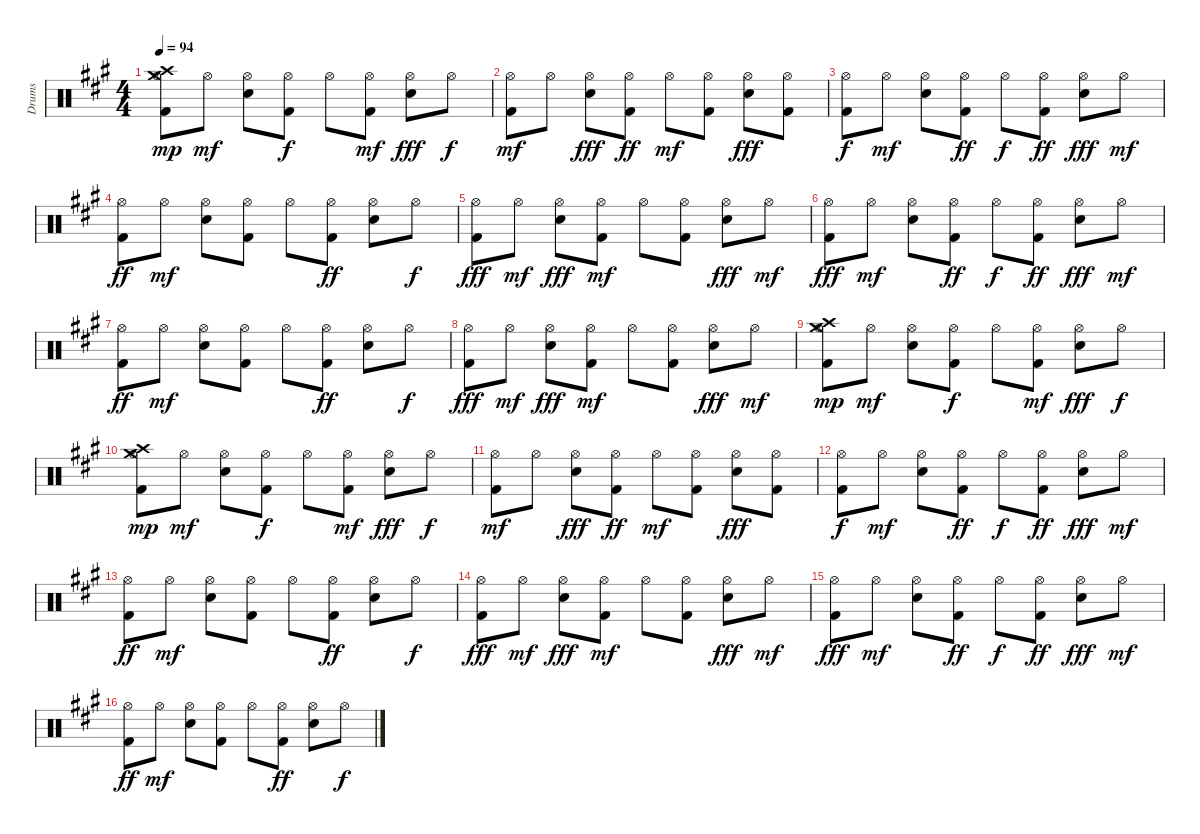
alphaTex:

\track ("Drums" "Drums") {instrument percussion}
\staff {score}
\articulation defaults
\ts (4 4)
\tempo 94
\clef neutral
\ks a
("Kick (hit) 2" "Hi-Hat (open)" "Crash high (hit)" "Crash medium (hit)").8{dy mp} "Hi-Hat (open)".8{dy mf} ("Electric Snare (hit)" "Hi-Hat (open)").8 ("Kick (hit) 2" "Hi-Hat (open)").8{dy f} "Hi-Hat (open)".8 ("Kick (hit) 2" "Hi-Hat (open)").8{dy mf} ("Electric Snare (hit)" "Hi-Hat (open)").8{dy fff} "Hi-Hat (open)".8{dy f} |
("Kick (hit) 2" "Hi-Hat (open)").8{dy mf} "Hi-Hat (open)".8 ("Electric Snare (hit)" "Hi-Hat (open)").8{dy fff} ("Kick (hit) 2" "Hi-Hat (open)").8{dy ff} "Hi-Hat (open)".8{dy mf} ("Kick (hit) 2" "Hi-Hat (open)").8 ("Electric Snare (hit)" "Hi-Hat (open)").8{dy fff} ("Kick (hit) 2" "Hi-Hat (open)").8 |
("Hi-Hat (open)" "Kick (hit) 2").8{dy f} "Hi-Hat (open)".8{dy mf} ("Electric Snare (hit)" "Hi-Hat (open)").8 ("Kick (hit) 2" "Hi-Hat (open)").8{dy ff} "Hi-Hat (open)".8{dy f} ("Kick (hit) 2" "Hi-Hat (open)").8{dy ff} ("Electric Snare (hit)" "Hi-Hat (open)").8{dy fff} "Hi-Hat (open)".8{dy mf} |
("Kick (hit) 2" "Hi-Hat (open)").8{dy ff} "Hi-Hat (open)".8{dy mf} ("Electric Snare (hit)" "Hi-Hat (open)").8 ("Kick (hit) 2" "Hi-Hat (open)").8 "Hi-Hat (open)".8 ("Kick (hit) 2" "Hi-Hat (open)").8{dy ff} ("Electric Snare (hit)" "Hi-Hat (open)").8 "Hi-Hat (open)".8{dy f} |
("Kick (hit) 2" "Hi-Hat (open)").8{dy fff} "Hi-Hat (open)".8{dy mf} ("Electric Snare (hit)" "Hi-Hat (open)").8{dy fff} ("Kick (hit) 2" "Hi-Hat (open)").8{dy mf} "Hi-Hat (open)".8 ("Kick (hit) 2" "Hi-Hat (open)").8 ("Electric Snare (hit)" "Hi-Hat (open)").8{dy fff} "Hi-Hat (open)".8{dy mf} |
("Kick (hit) 2" "Hi-Hat (open)").8{dy fff} "Hi-Hat (open)".8{dy mf} ("Electric Snare (hit)" "Hi-Hat (open)").8 ("Kick (hit) 2" "Hi-Hat (open)").8{dy ff} "Hi-Hat (open)".8{dy f} ("Kick (hit) 2" "Hi-Hat (open)").8{dy ff} ("Electric Snare (hit)" "Hi-Hat (open)").8{dy fff} "Hi-Hat (open)".8{dy mf} |
("Kick (hit) 2" "Hi-Hat (open)").8{dy ff} "Hi-Hat (open)".8{dy mf} ("Electric Snare (hit)" "Hi-Hat (open)").8 ("Kick (hit) 2" "Hi-Hat (open)").8 "Hi-Hat (open)".8 ("Kick (hit) 2" "Hi-Hat (open)").8{dy ff} ("Electric Snare (hit)" "Hi-Hat (open)").8 "Hi-Hat (open)".8{dy f} |
("Kick (hit) 2" "Hi-Hat (open)").8{dy fff} "Hi-Hat (open)".8{dy mf} ("Electric Snare (hit)" "Hi-Hat (open)").8{dy fff} ("Kick (hit) 2" "Hi-Hat (open)").8{dy mf} "Hi-Hat (open)".8 ("Kick (hit) 2" "Hi-Hat (open)").8 ("Electric Snare (hit)" "Hi-Hat (open)").8{dy fff} "Hi-Hat (open)".8{dy mf} |
("Kick (hit) 2" "Hi-Hat (open)" "Crash high (hit)" "Crash medium (hit)").8{dy mp} "Hi-Hat (open)".8{dy mf} ("Electric Snare (hit)" "Hi-Hat (open)").8 ("Kick (hit) 2" "Hi-Hat (open)").8{dy f} "Hi-Hat (open)".8 ("Kick (hit) 2" "Hi-Hat (open)").8{dy mf} ("Electric Snare (hit)" "Hi-Hat (open)").8{dy fff} "Hi-Hat (open)".8{dy f} |
("Kick (hit) 2" "Hi-Hat (open)" "Crash high (hit)" "Crash medium (hit)").8{dy mp} "Hi-Hat (open)".8{dy mf} ("Electric Snare (hit)" "Hi-Hat (open)").8 ("Kick (hit) 2" "Hi-Hat (open)").8{dy f} "Hi-Hat (open)".8 ("Kick (hit) 2" "Hi-Hat (open)").8{dy mf} ("Electric Snare (hit)" "Hi-Hat (open)").8{dy fff} "Hi-Hat (open)".8{dy f} |
("Kick (hit) 2" "Hi-Hat (open)").8{dy mf} "Hi-Hat (open)".8 ("Electric Snare (hit)" "Hi-Hat (open)").8{dy fff} ("Kick (hit) 2" "Hi-Hat (open)").8{dy ff} "Hi-Hat (open)".8{dy mf} ("Kick (hit) 2" "Hi-Hat (open)").8 ("Electric Snare (hit)" "Hi-Hat (open)").8{dy fff} ("Kick (hit) 2" "Hi-Hat (open)").8 |
("Hi-Hat (open)" "Kick (hit) 2").8{dy f} "Hi-Hat (open)".8{dy mf} ("Electric Snare (hit)" "Hi-Hat (open)").8 ("Kick (hit) 2" "Hi-Hat (open)").8{dy ff} "Hi-Hat (open)".8{dy f} ("Kick (hit) 2" "Hi-Hat (open)").8{dy ff} ("Electric Snare (hit)" "Hi-Hat (open)").8{dy fff} "Hi-Hat (open)".8{dy mf} |
("Kick (hit) 2" "Hi-Hat (open)").8{dy ff} "Hi-Hat (open)".8{dy mf} ("Electric Snare (hit)" "Hi-Hat (open)").8 ("Kick (hit) 2" "Hi-Hat (open)").8 "Hi-Hat (open)".8 ("Kick (hit) 2" "Hi-Hat (open)").8{dy ff} ("Electric Snare (hit)" "Hi-Hat (open)").8 "Hi-Hat (open)".8{dy f} |
("Kick (hit) 2" "Hi-Hat (open)").8{dy fff} "Hi-Hat (open)".8{dy mf} ("Electric Snare (hit)" "Hi-Hat (open)").8{dy fff} ("Kick (hit) 2" "Hi-Hat (open)").8{dy mf} "Hi-Hat (open)".8 ("Kick (hit) 2" "Hi-Hat (open)").8 ("Electric Snare (hit)" "Hi-Hat (open)").8{dy fff} "Hi-Hat (open)".8{dy mf} |
("Kick (hit) 2" "Hi-Hat (open)").8{dy fff} "Hi-Hat (open)".8{dy mf} ("Electric Snare (hit)" "Hi-Hat (open)").8 ("Kick (hit) 2" "Hi-Hat (open)").8{dy ff} "Hi-Hat (open)".8{dy f} ("Kick (hit) 2" "Hi-Hat (open)").8{dy ff} ("Electric Snare (hit)" "Hi-Hat (open)").8{dy fff} "Hi-Hat (open)".8{dy mf} |
("Kick (hit) 2" "Hi-Hat (open)").8{dy ff} "Hi-Hat (open)".8{dy mf} ("Electric Snare (hit)" "Hi-Hat (open)").8 ("Kick (hit) 2" "Hi-Hat (open)").8 "Hi-Hat (open)".8 ("Kick (hit) 2" "Hi-Hat (open)").8{dy ff} ("Electric Snare (hit)" "Hi-Hat (open)").8 "Hi-Hat (open)".8{dy f}
